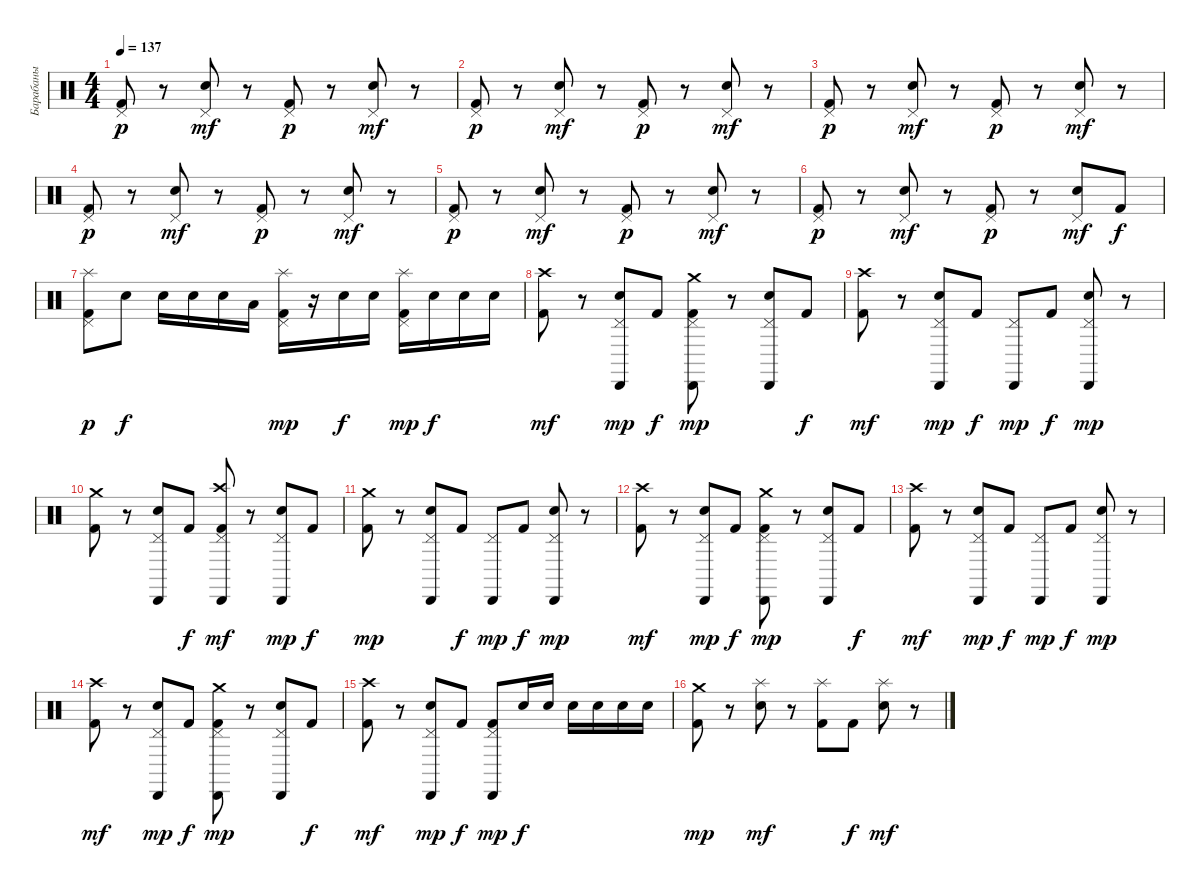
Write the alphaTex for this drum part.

\track ("Барабаны" "Барабаны") {instrument percussion}
\staff {score}
\articulation defaults
\ts (4 4)
\tempo 137
\clef neutral
\ks c
("Pedal Hi-Hat (hit)" "Kick (hit) 2").8{dy p} r.8 ("Pedal Hi-Hat (hit)" "Electric Snare (hit)").8{dy mf} r.8 ("Pedal Hi-Hat (hit)" "Kick (hit) 2").8{dy p} r.8 ("Pedal Hi-Hat (hit)" "Electric Snare (hit)").8{dy mf} r.8 |
("Pedal Hi-Hat (hit)" "Kick (hit) 2").8{dy p} r.8 ("Pedal Hi-Hat (hit)" "Electric Snare (hit)").8{dy mf} r.8 ("Pedal Hi-Hat (hit)" "Kick (hit) 2").8{dy p} r.8 ("Pedal Hi-Hat (hit)" "Electric Snare (hit)").8{dy mf} r.8 |
("Pedal Hi-Hat (hit)" "Kick (hit) 2").8{dy p} r.8 ("Pedal Hi-Hat (hit)" "Electric Snare (hit)").8{dy mf} r.8 ("Pedal Hi-Hat (hit)" "Kick (hit) 2").8{dy p} r.8 ("Pedal Hi-Hat (hit)" "Electric Snare (hit)").8{dy mf} r.8 |
("Pedal Hi-Hat (hit)" "Kick (hit) 2").8{dy p} r.8 ("Pedal Hi-Hat (hit)" "Electric Snare (hit)").8{dy mf} r.8 ("Pedal Hi-Hat (hit)" "Kick (hit) 2").8{dy p} r.8 ("Pedal Hi-Hat (hit)" "Electric Snare (hit)").8{dy mf} r.8 |
("Pedal Hi-Hat (hit)" "Kick (hit) 2").8{dy p} r.8 ("Pedal Hi-Hat (hit)" "Electric Snare (hit)").8{dy mf} r.8 ("Pedal Hi-Hat (hit)" "Kick (hit) 2").8{dy p} r.8 ("Pedal Hi-Hat (hit)" "Electric Snare (hit)").8{dy mf} r.8 |
("Pedal Hi-Hat (hit)" "Kick (hit) 2").8{dy p} r.8 ("Pedal Hi-Hat (hit)" "Electric Snare (hit)").8{dy mf} r.8 ("Pedal Hi-Hat (hit)" "Kick (hit) 2").8{dy p} r.8 ("Pedal Hi-Hat (hit)" "Electric Snare (hit)").8{dy mf} "Kick (hit) 2".8{dy f} |
("Splash (hit)" "Pedal Hi-Hat (hit)" "Kick (hit) 2").8{dy p} "Electric Snare (hit)".8{dy f} "Electric Snare (hit)".16 "Electric Snare (hit)".16 "Electric Snare (hit)".16 "Low Tom (hit)".16 ("Splash (hit)" "Pedal Hi-Hat (hit)" "Kick (hit) 2").16{dy mp} r.16 "Electric Snare (hit)".16{dy f} "Electric Snare (hit)".16 ("Splash (hit)" "Pedal Hi-Hat (hit)" "Kick (hit) 2").16{dy mp} "Electric Snare (hit)".16{dy f} "Electric Snare (hit)".16 "Electric Snare (hit)".16 |
("Crash high (hit)" "Kick (hit) 2").8{dy mf} r.8 ("Cabasa (hit)" "Pedal Hi-Hat (hit)" "Electric Snare (hit)").8{dy mp} "Kick (hit) 2".8{dy f} ("Cabasa (hit)" "Crash medium (hit)" "Pedal Hi-Hat (hit)" "Kick (hit) 2").8{dy mp} r.8 ("Cabasa (hit)" "Pedal Hi-Hat (hit)" "Electric Snare (hit)").8 "Kick (hit) 2".8{dy f} |
("Crash high (hit)" "Kick (hit) 2").8{dy mf} r.8 ("Cabasa (hit)" "Pedal Hi-Hat (hit)" "Electric Snare (hit)").8{dy mp} "Kick (hit) 2".8{dy f} ("Cabasa (hit)" "Pedal Hi-Hat (hit)").8{dy mp} "Kick (hit) 2".8{dy f} ("Cabasa (hit)" "Pedal Hi-Hat (hit)" "Electric Snare (hit)").8{dy mp} r.8 |
("Crash medium (hit)" "Kick (hit) 2").8 r.8 ("Cabasa (hit)" "Pedal Hi-Hat (hit)" "Electric Snare (hit)").8 "Kick (hit) 2".8{dy f} ("Cabasa (hit)" "Crash high (hit)" "Pedal Hi-Hat (hit)" "Kick (hit) 2").8{dy mf} r.8 ("Cabasa (hit)" "Pedal Hi-Hat (hit)" "Electric Snare (hit)").8{dy mp} "Kick (hit) 2".8{dy f} |
("Crash medium (hit)" "Kick (hit) 2").8{dy mp} r.8 ("Cabasa (hit)" "Pedal Hi-Hat (hit)" "Electric Snare (hit)").8 "Kick (hit) 2".8{dy f} ("Cabasa (hit)" "Pedal Hi-Hat (hit)").8{dy mp} "Kick (hit) 2".8{dy f} ("Cabasa (hit)" "Pedal Hi-Hat (hit)" "Electric Snare (hit)").8{dy mp} r.8 |
("Crash high (hit)" "Kick (hit) 2").8{dy mf} r.8 ("Cabasa (hit)" "Pedal Hi-Hat (hit)" "Electric Snare (hit)").8{dy mp} "Kick (hit) 2".8{dy f} ("Cabasa (hit)" "Crash medium (hit)" "Pedal Hi-Hat (hit)" "Kick (hit) 2").8{dy mp} r.8 ("Cabasa (hit)" "Pedal Hi-Hat (hit)" "Electric Snare (hit)").8 "Kick (hit) 2".8{dy f} |
("Crash high (hit)" "Kick (hit) 2").8{dy mf} r.8 ("Cabasa (hit)" "Pedal Hi-Hat (hit)" "Electric Snare (hit)").8{dy mp} "Kick (hit) 2".8{dy f} ("Cabasa (hit)" "Pedal Hi-Hat (hit)").8{dy mp} "Kick (hit) 2".8{dy f} ("Cabasa (hit)" "Pedal Hi-Hat (hit)" "Electric Snare (hit)").8{dy mp} r.8 |
("Crash high (hit)" "Kick (hit) 2").8{dy mf} r.8 ("Cabasa (hit)" "Pedal Hi-Hat (hit)" "Electric Snare (hit)").8{dy mp} "Kick (hit) 2".8{dy f} ("Cabasa (hit)" "Crash medium (hit)" "Pedal Hi-Hat (hit)" "Kick (hit) 2").8{dy mp} r.8 ("Cabasa (hit)" "Pedal Hi-Hat (hit)" "Electric Snare (hit)").8 "Kick (hit) 2".8{dy f} |
("Crash high (hit)" "Kick (hit) 2").8{dy mf} r.8 ("Cabasa (hit)" "Pedal Hi-Hat (hit)" "Electric Snare (hit)").8{dy mp} "Kick (hit) 2".8{dy f} ("Kick (hit) 2" "Cabasa (hit)" "Pedal Hi-Hat (hit)").8{dy mp} "Electric Snare (hit)".16{dy f} "Electric Snare (hit)".16 "Electric Snare (hit)".16 "Electric Snare (hit)".16 "Electric Snare (hit)".16 "Electric Snare (hit)".16 |
("Crash medium (hit)" "Kick (hit) 2").8{dy mp} r.8 ("Splash (hit)" "Electric Snare (hit)").8{dy mf} r.8 ("Splash (hit)" "Kick (hit) 2").8 "Kick (hit) 2".8{dy f} ("Splash (hit)" "Electric Snare (hit)").8{dy mf} r.8
